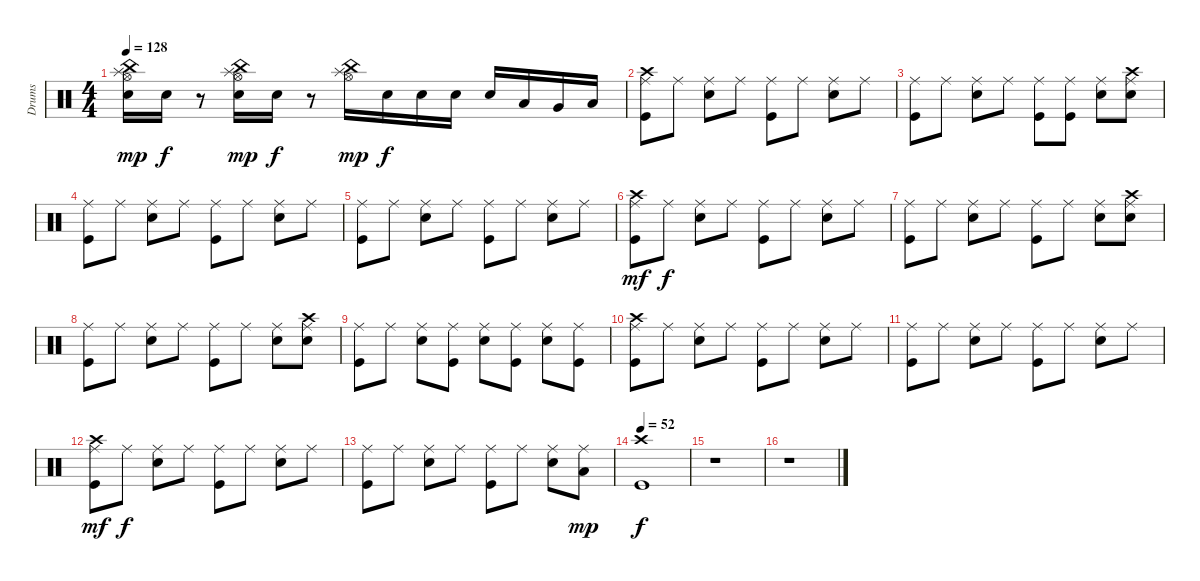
\track ("Drums" "Drums") {instrument percussion}
\staff {score}
\articulation defaults
\ts (4 4)
\tempo 128
\clef neutral
\ks c
("Hi-Hat (open)" "China (hit)" "Splash (hit)" "Snare (hit) 2").16{dy mp} "Snare (hit) 2".16{dy f} r.8 ("Hi-Hat (open)" "China (hit)" "Splash (hit)" "Snare (hit) 2").16{dy mp} "Snare (hit) 2".16{dy f} r.8 ("Hi-Hat (open)" "China (hit)" "Splash (hit)").16{dy mp} "Snare (hit) 2".16{dy f} "Snare (hit) 2".16 "Snare (hit) 2".16 "Snare (hit) 2".16 "Low Tom (hit)".16 "Very Low Tom (hit)".16 "Low Floor Tom (hit)".16 |
("Crash high (hit)" "Ride (middle)" "Kick (hit)").8 "Ride (middle)".8 ("Ride (middle)" "Snare (hit) 2").8 "Ride (middle)".8 ("Ride (middle)" "Kick (hit)").8 "Ride (middle)".8 ("Ride (middle)" "Snare (hit) 2").8 "Ride (middle)".8 |
("Ride (middle)" "Kick (hit)").8 "Ride (middle)".8 ("Ride (middle)" "Snare (hit) 2").8 "Ride (middle)".8 ("Ride (middle)" "Kick (hit)").8 ("Ride (middle)" "Kick (hit)").8 ("Ride (middle)" "Snare (hit) 2").8 ("Crash high (hit)" "Ride (middle)" "Snare (hit) 2").8 |
("Ride (middle)" "Kick (hit)").8 "Ride (middle)".8 ("Ride (middle)" "Snare (hit) 2").8 "Ride (middle)".8 ("Ride (middle)" "Kick (hit)").8 "Ride (middle)".8 ("Ride (middle)" "Snare (hit) 2").8 "Ride (middle)".8 |
("Ride (middle)" "Kick (hit)").8 "Ride (middle)".8 ("Ride (middle)" "Snare (hit) 2").8 "Ride (middle)".8 ("Ride (middle)" "Kick (hit)").8 "Ride (middle)".8 ("Ride (middle)" "Snare (hit) 2").8 "Ride (middle)".8 |
("Crash high (hit)" "Ride (middle)" "Kick (hit)").8{dy mf} "Ride (middle)".8{dy f} ("Ride (middle)" "Snare (hit) 2").8 "Ride (middle)".8 ("Ride (middle)" "Kick (hit)").8 "Ride (middle)".8 ("Ride (middle)" "Snare (hit) 2").8 "Ride (middle)".8 |
("Ride (middle)" "Kick (hit)").8 "Ride (middle)".8 ("Ride (middle)" "Snare (hit) 2").8 "Ride (middle)".8 ("Ride (middle)" "Kick (hit)").8 "Ride (middle)".8 ("Ride (middle)" "Snare (hit) 2").8 ("Crash high (hit)" "Ride (middle)" "Snare (hit) 2").8 |
("Ride (middle)" "Kick (hit)").8 "Ride (middle)".8 ("Ride (middle)" "Snare (hit) 2").8 "Ride (middle)".8 ("Ride (middle)" "Kick (hit)").8 "Ride (middle)".8 ("Ride (middle)" "Snare (hit) 2").8 ("Crash high (hit)" "Ride (middle)" "Snare (hit) 2").8 |
("Ride (middle)" "Kick (hit)").8 "Ride (middle)".8 ("Ride (middle)" "Snare (hit) 2").8 ("Ride (middle)" "Kick (hit)").8 ("Ride (middle)" "Snare (hit) 2").8 ("Ride (middle)" "Kick (hit)").8 ("Ride (middle)" "Snare (hit) 2").8 ("Ride (middle)" "Kick (hit)").8 |
("Crash high (hit)" "Ride (middle)" "Kick (hit)").8 "Ride (middle)".8 ("Ride (middle)" "Snare (hit) 2").8 "Ride (middle)".8 ("Ride (middle)" "Kick (hit)").8 "Ride (middle)".8 ("Ride (middle)" "Snare (hit) 2").8 "Ride (middle)".8 |
("Ride (middle)" "Kick (hit)").8 "Ride (middle)".8 ("Ride (middle)" "Snare (hit) 2").8 "Ride (middle)".8 ("Ride (middle)" "Kick (hit)").8 "Ride (middle)".8 ("Ride (middle)" "Snare (hit) 2").8 "Ride (middle)".8 |
("Crash high (hit)" "Ride (middle)" "Kick (hit)").8{dy mf} "Ride (middle)".8{dy f} ("Ride (middle)" "Snare (hit) 2").8 "Ride (middle)".8 ("Ride (middle)" "Kick (hit)").8 "Ride (middle)".8 ("Ride (middle)" "Snare (hit) 2").8 "Ride (middle)".8 |
("Ride (middle)" "Kick (hit)").8 "Ride (middle)".8 ("Ride (middle)" "Snare (hit) 2").8 "Ride (middle)".8 ("Ride (middle)" "Kick (hit)").8 "Ride (middle)".8 ("Ride (middle)" "Snare (hit) 2").8 ("Ride (middle)" "Low Floor Tom (hit)").8{dy mp} |
\tempo 52
("Crash high (hit)" "Kick (hit)").1{dy f} |
r.1 |
r.1
